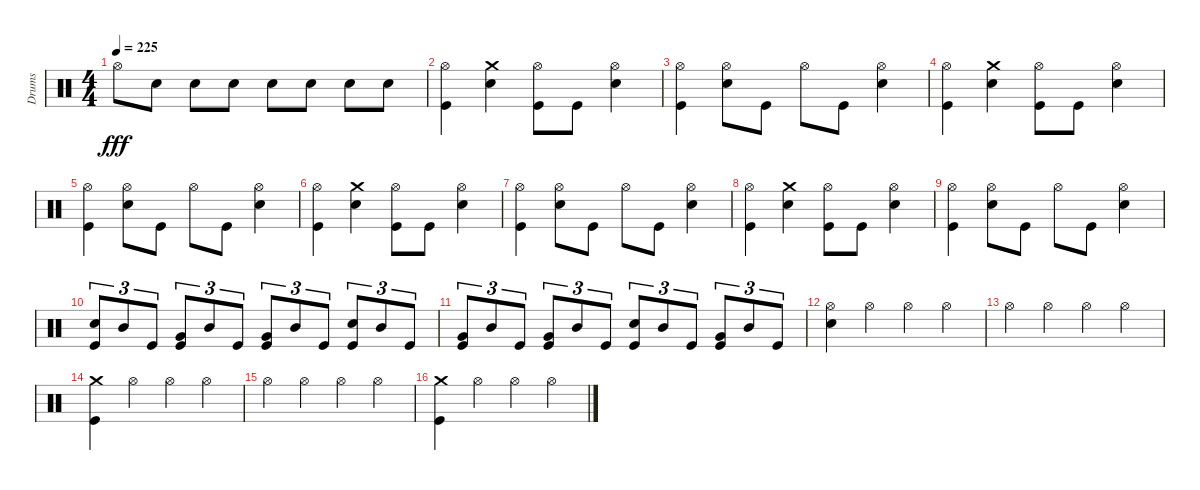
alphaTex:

\track ("Drums" "Drums") {instrument percussion}
\staff {score}
\articulation defaults
\ts (4 4)
\tempo 225
\clef neutral
\ks c "Hi-Hat (open)".8{dy fff} "Snare (hit) 2".8 "Snare (hit) 2".8 "Snare (hit) 2".8 "Snare (hit) 2".8 "Snare (hit) 2".8 "Snare (hit) 2".8 "Snare (hit) 2".8
|
("Kick (hit)" "Hi-Hat (open)").4 ("Snare (hit) 2" "Crash medium (hit)").4 ("Kick (hit)" "Hi-Hat (open)").8 "Kick (hit)".8 ("Snare (hit) 2" "Hi-Hat (open)").4 |
("Kick (hit)" "Hi-Hat (open)").4 ("Hi-Hat (open)" "Snare (hit) 2").8 "Kick (hit)".8 "Hi-Hat (open)".8 "Kick (hit)".8 ("Snare (hit) 2" "Hi-Hat (open)").4 |
("Kick (hit)" "Hi-Hat (open)").4 ("Snare (hit) 2" "Crash medium (hit)").4 ("Kick (hit)" "Hi-Hat (open)").8 "Kick (hit)".8 ("Snare (hit) 2" "Hi-Hat (open)").4 |
("Kick (hit)" "Hi-Hat (open)").4 ("Snare (hit) 2" "Hi-Hat (open)").8 "Kick (hit)".8 "Hi-Hat (open)".8 "Kick (hit)".8 ("Snare (hit) 2" "Hi-Hat (open)").4 |
("Kick (hit)" "Hi-Hat (open)").4 ("Crash medium (hit)" "Snare (hit) 2").4 ("Kick (hit)" "Hi-Hat (open)").8 "Kick (hit)".8 ("Snare (hit) 2" "Hi-Hat (open)").4 |
("Kick (hit)" "Hi-Hat (open)").4 ("Snare (hit) 2" "Hi-Hat (open)").8 "Kick (hit)".8 "Hi-Hat (open)".8 "Kick (hit)".8 ("Snare (hit) 2" "Hi-Hat (open)").4 |
("Kick (hit)" "Hi-Hat (open)").4 ("Snare (hit) 2" "Crash medium (hit)").4 ("Kick (hit)" "Hi-Hat (open)").8 "Kick (hit)".8 ("Snare (hit) 2" "Hi-Hat (open)").4 |
("Kick (hit)" "Hi-Hat (open)").4 ("Snare (hit) 2" "Hi-Hat (open)").8 "Kick (hit)".8 "Hi-Hat (open)".8 "Kick (hit)".8 ("Snare (hit) 2" "Hi-Hat (open)").4 |
("Snare (hit) 2" "Kick (hit)").8{tu (3 2)} "Mid Tom (hit)".8{tu (3 2)} "Kick (hit)".8{tu (3 2)} ("Very Low Tom (hit)" "Kick (hit)").8{tu (3 2)} "Mid Tom (hit)".8{tu (3 2)} "Kick (hit)".8{tu (3 2)} ("Very Low Tom (hit)" "Kick (hit)").8{tu (3 2)} "Mid Tom (hit)".8{tu (3 2)} "Kick (hit)".8{tu (3 2)} ("Snare (hit) 2" "Kick (hit)").8{tu (3 2)} "Mid Tom (hit)".8{tu (3 2)} "Kick (hit)".8{tu (3 2)} |
("Very Low Tom (hit)" "Kick (hit)").8{tu (3 2)} "Mid Tom (hit)".8{tu (3 2)} "Kick (hit)".8{tu (3 2)} ("Very Low Tom (hit)" "Kick (hit)").8{tu (3 2)} "Mid Tom (hit)".8{tu (3 2)} "Kick (hit)".8{tu (3 2)} ("Snare (hit) 2" "Kick (hit)").8{tu (3 2)} "Mid Tom (hit)".8{tu (3 2)} "Kick (hit)".8{tu (3 2)} ("Very Low Tom (hit)" "Kick (hit)").8{tu (3 2)} "Mid Tom (hit)".8{tu (3 2)} "Kick (hit)".8{tu (3 2)} |
("Snare (hit) 2" "Hi-Hat (open)").4 "Hi-Hat (open)".4 "Hi-Hat (open)".4 "Hi-Hat (open)".4 |
"Hi-Hat (open)".4 "Hi-Hat (open)".4 "Hi-Hat (open)".4 "Hi-Hat (open)".4 |
("Crash medium (hit)" "Kick (hit)").4 "Hi-Hat (open)".4 "Hi-Hat (open)".4 "Hi-Hat (open)".4 |
"Hi-Hat (open)".4 "Hi-Hat (open)".4 "Hi-Hat (open)".4 "Hi-Hat (open)".4 |
("Crash medium (hit)" "Kick (hit)").4 "Hi-Hat (open)".4 "Hi-Hat (open)".4 "Hi-Hat (open)".4
